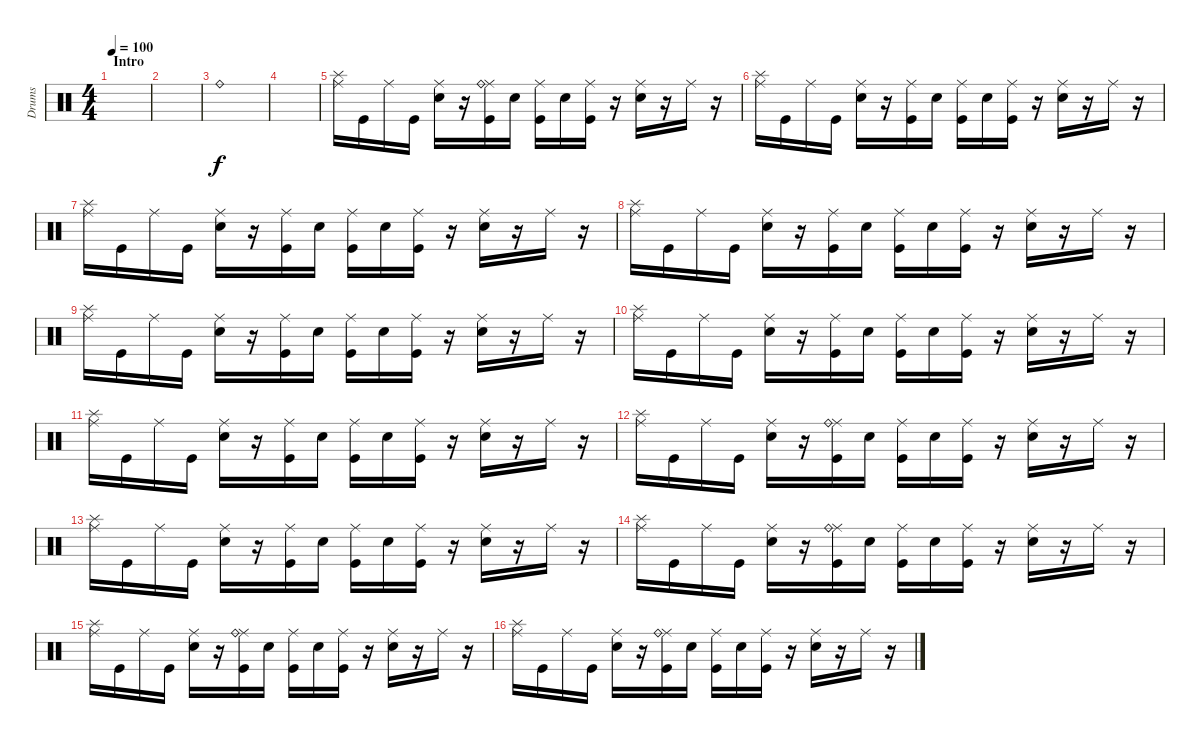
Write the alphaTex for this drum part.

\track ("Drums" "Drums") {instrument percussion}
\staff {score}
\articulation defaults
\ts (4 4)
\section ("" "Intro")
\tempo 100
\clef neutral
\ks c
|
|
"Ride (bell)".1 |
|
("Ride (middle)" "Splash (hit)").16 "Kick (hit)".16 "Ride (middle)".16 "Kick (hit)".16 ("Ride (middle)" "Electric Snare (hit)").16 r.16 ("Ride (middle)" "Ride (bell)" "Kick (hit)").16 "Electric Snare (hit)".16 ("Ride (middle)" "Kick (hit)").16 "Electric Snare (hit)".16 ("Ride (middle)" "Kick (hit)").16 r.16 ("Ride (middle)" "Electric Snare (hit)").16 r.16 "Ride (middle)".16 r.16 |
("Ride (middle)" "Splash (hit)").16 "Kick (hit)".16 "Ride (middle)".16 "Kick (hit)".16 ("Ride (middle)" "Electric Snare (hit)").16 r.16 ("Ride (middle)" "Kick (hit)").16 "Electric Snare (hit)".16 ("Ride (middle)" "Kick (hit)").16 "Electric Snare (hit)".16 ("Ride (middle)" "Kick (hit)").16 r.16 ("Ride (middle)" "Electric Snare (hit)").16 r.16 "Ride (middle)".16 r.16 |
("Ride (middle)" "Splash (hit)").16 "Kick (hit)".16 "Ride (middle)".16 "Kick (hit)".16 ("Ride (middle)" "Electric Snare (hit)").16 r.16 ("Ride (middle)" "Kick (hit)").16 "Electric Snare (hit)".16 ("Ride (middle)" "Kick (hit)").16 "Electric Snare (hit)".16 ("Ride (middle)" "Kick (hit)").16 r.16 ("Ride (middle)" "Electric Snare (hit)").16 r.16 "Ride (middle)".16 r.16 |
("Ride (middle)" "Splash (hit)").16 "Kick (hit)".16 "Ride (middle)".16 "Kick (hit)".16 ("Ride (middle)" "Electric Snare (hit)").16 r.16 ("Ride (middle)" "Kick (hit)").16 "Electric Snare (hit)".16 ("Ride (middle)" "Kick (hit)").16 "Electric Snare (hit)".16 ("Ride (middle)" "Kick (hit)").16 r.16 ("Ride (middle)" "Electric Snare (hit)").16 r.16 "Ride (middle)".16 r.16 |
("Ride (middle)" "Splash (hit)").16 "Kick (hit)".16 "Ride (middle)".16 "Kick (hit)".16 ("Ride (middle)" "Electric Snare (hit)").16 r.16 ("Ride (middle)" "Kick (hit)").16 "Electric Snare (hit)".16 ("Ride (middle)" "Kick (hit)").16 "Electric Snare (hit)".16 ("Ride (middle)" "Kick (hit)").16 r.16 ("Ride (middle)" "Electric Snare (hit)").16 r.16 "Ride (middle)".16 r.16 |
("Ride (middle)" "Splash (hit)").16 "Kick (hit)".16 "Ride (middle)".16 "Kick (hit)".16 ("Ride (middle)" "Electric Snare (hit)").16 r.16 ("Ride (middle)" "Kick (hit)").16 "Electric Snare (hit)".16 ("Ride (middle)" "Kick (hit)").16 "Electric Snare (hit)".16 ("Ride (middle)" "Kick (hit)").16 r.16 ("Ride (middle)" "Electric Snare (hit)").16 r.16 "Ride (middle)".16 r.16 |
("Ride (middle)" "Splash (hit)").16 "Kick (hit)".16 "Ride (middle)".16 "Kick (hit)".16 ("Ride (middle)" "Electric Snare (hit)").16 r.16 ("Ride (middle)" "Kick (hit)").16 "Electric Snare (hit)".16 ("Ride (middle)" "Kick (hit)").16 "Electric Snare (hit)".16 ("Ride (middle)" "Kick (hit)").16 r.16 ("Ride (middle)" "Electric Snare (hit)").16 r.16 "Ride (middle)".16 r.16 |
("Ride (middle)" "Splash (hit)").16 "Kick (hit)".16 "Ride (middle)".16 "Kick (hit)".16 ("Ride (middle)" "Electric Snare (hit)").16 r.16 ("Ride (middle)" "Ride (bell)" "Kick (hit)").16 "Electric Snare (hit)".16 ("Ride (middle)" "Kick (hit)").16 "Electric Snare (hit)".16 ("Ride (middle)" "Kick (hit)").16 r.16 ("Ride (middle)" "Electric Snare (hit)").16 r.16 "Ride (middle)".16 r.16 |
("Ride (middle)" "Splash (hit)").16 "Kick (hit)".16 "Ride (middle)".16 "Kick (hit)".16 ("Ride (middle)" "Electric Snare (hit)").16 r.16 ("Ride (middle)" "Kick (hit)").16 "Electric Snare (hit)".16 ("Ride (middle)" "Kick (hit)").16 "Electric Snare (hit)".16 ("Ride (middle)" "Kick (hit)").16 r.16 ("Ride (middle)" "Electric Snare (hit)").16 r.16 "Ride (middle)".16 r.16 |
("Ride (middle)" "Splash (hit)").16 "Kick (hit)".16 "Ride (middle)".16 "Kick (hit)".16 ("Ride (middle)" "Electric Snare (hit)").16 r.16 ("Ride (middle)" "Ride (bell)" "Kick (hit)").16 "Electric Snare (hit)".16 ("Ride (middle)" "Kick (hit)").16 "Electric Snare (hit)".16 ("Ride (middle)" "Kick (hit)").16 r.16 ("Ride (middle)" "Electric Snare (hit)").16 r.16 "Ride (middle)".16 r.16 |
("Ride (middle)" "Splash (hit)").16 "Kick (hit)".16 "Ride (middle)".16 "Kick (hit)".16 ("Ride (middle)" "Electric Snare (hit)").16 r.16 ("Ride (middle)" "Ride (bell)" "Kick (hit)").16 "Electric Snare (hit)".16 ("Ride (middle)" "Kick (hit)").16 "Electric Snare (hit)".16 ("Ride (middle)" "Kick (hit)").16 r.16 ("Ride (middle)" "Electric Snare (hit)").16 r.16 "Ride (middle)".16 r.16 |
("Ride (middle)" "Splash (hit)").16 "Kick (hit)".16 "Ride (middle)".16 "Kick (hit)".16 ("Ride (middle)" "Electric Snare (hit)").16 r.16 ("Ride (middle)" "Ride (bell)" "Kick (hit)").16 "Electric Snare (hit)".16 ("Ride (middle)" "Kick (hit)").16 "Electric Snare (hit)".16 ("Ride (middle)" "Kick (hit)").16 r.16 ("Ride (middle)" "Electric Snare (hit)").16 r.16 "Ride (middle)".16 r.16
